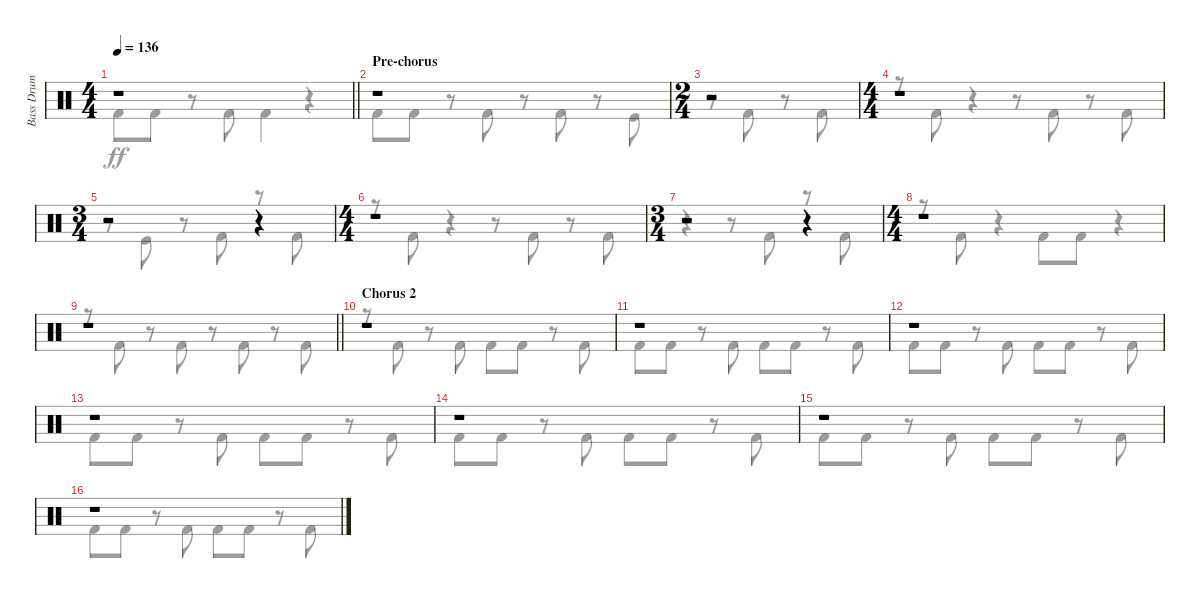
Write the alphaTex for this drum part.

\track ("Bass Drum" "Bass Drum") {instrument percussion}
\staff {score}
\articulation defaults
\voice
\ts (4 4)
\tempo 136
\clef neutral
\barLineRight lightlight
\ks c
r.1{dy f} |
\section ("" "Pre-chorus")
r.1 |
\ts (2 4)
r.2 |
\ts (4 4)
r.1 |
\ts (3 4)
r.2 r.4 |
\ts (4 4)
r.1 |
\ts (3 4)
r.2 r.4 |
\ts (4 4)
r.1 |
\barLineRight lightlight
r.1 |
\section ("" "Chorus 2")
r.1 |
r.1 |
r.1 |
r.1 |
r.1 |
r.1 |
r.1
\voice
\clef neutral
\ottava regular
\simile none
\barLineRight lightlight
\ks c "Kick (hit) 2".8{dy ff} "Kick (hit) 2".8
r.8 "Kick (hit) 2".8 "Kick (hit) 2".4 r.4 |
"Kick (hit) 2".8 "Kick (hit) 2".8 r.8 "Kick (hit) 2".8 r.8 "Kick (hit) 2".8 r.8 "Kick (hit)".8 |
r.8 "Kick (hit) 2".8 r.8 "Kick (hit) 2".8 |
r.8 "Kick (hit) 2".8 r.4 r.8 "Kick (hit) 2".8 r.8 "Kick (hit) 2".8 |
r.8 "Kick (hit)".8 r.8 "Kick (hit) 2".8 r.8 "Kick (hit) 2".8 |
r.8 "Kick (hit) 2".8 r.4 r.8 "Kick (hit) 2".8 r.8 "Kick (hit) 2".8 |
r.4 r.8 "Kick (hit) 2".8 r.8 "Kick (hit) 2".8 |
r.8 "Kick (hit) 2".8 r.4 "Kick (hit) 2".8 "Kick (hit) 2".8 r.4 |
\barLineRight lightlight
r.8 "Kick (hit) 2".8 r.8 "Kick (hit) 2".8 r.8 "Kick (hit) 2".8 r.8 "Kick (hit) 2".8 |
r.8 "Kick (hit) 2".8 r.8 "Kick (hit) 2".8 "Kick (hit) 2".8 "Kick (hit) 2".8 r.8 "Kick (hit) 2".8 |
"Kick (hit) 2".8 "Kick (hit) 2".8 r.8 "Kick (hit) 2".8 "Kick (hit) 2".8 "Kick (hit) 2".8 r.8 "Kick (hit) 2".8 |
"Kick (hit) 2".8 "Kick (hit) 2".8 r.8 "Kick (hit) 2".8 "Kick (hit) 2".8 "Kick (hit) 2".8 r.8 "Kick (hit) 2".8 |
"Kick (hit) 2".8 "Kick (hit) 2".8 r.8 "Kick (hit) 2".8 "Kick (hit) 2".8 "Kick (hit) 2".8 r.8 "Kick (hit) 2".8 |
"Kick (hit) 2".8 "Kick (hit) 2".8 r.8 "Kick (hit) 2".8 "Kick (hit) 2".8 "Kick (hit) 2".8 r.8 "Kick (hit) 2".8 |
"Kick (hit) 2".8 "Kick (hit) 2".8 r.8 "Kick (hit) 2".8 "Kick (hit) 2".8 "Kick (hit) 2".8 r.8 "Kick (hit) 2".8 |
"Kick (hit) 2".8 "Kick (hit) 2".8 r.8 "Kick (hit) 2".8 "Kick (hit) 2".8 "Kick (hit) 2".8 r.8 "Kick (hit) 2".8
